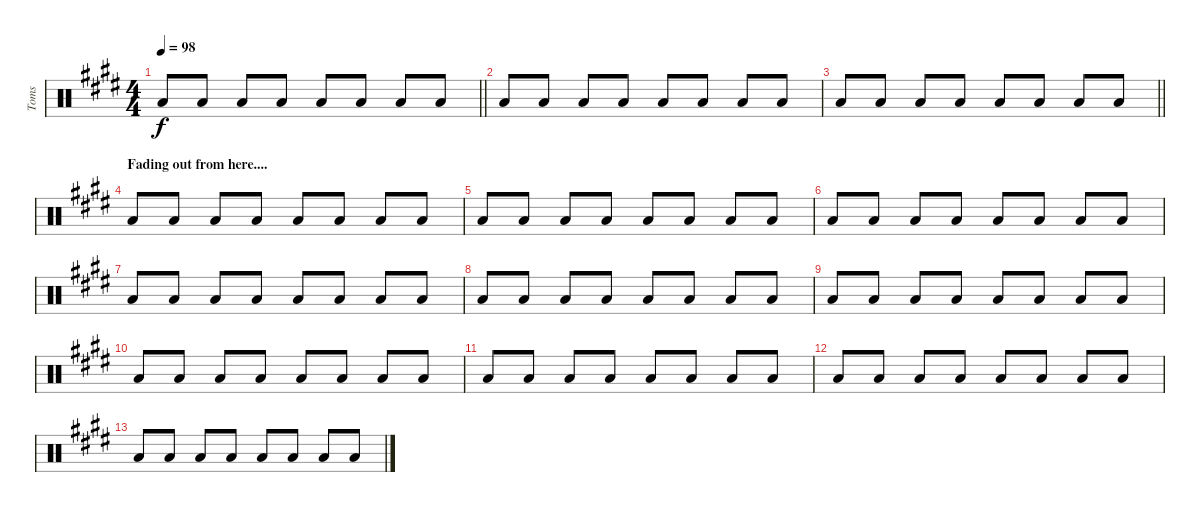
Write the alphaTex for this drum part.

\track ("Toms" "Toms") {instrument percussion}
\staff {score}
\articulation defaults
\ts (4 4)
\tempo 98
\clef neutral
\barLineRight lightlight
\ks c#minor "Low Tom (hit)".8{dy f} "Low Floor Tom (hit)".8 "Low Floor Tom (hit)".8 "Low Floor Tom (hit)".8 "Low Tom (hit)".8 "Low Floor Tom (hit)".8 "Low Floor Tom (hit)".8 "Low Floor Tom (hit)".8
|
"Low Tom (hit)".8 "Low Floor Tom (hit)".8 "Low Floor Tom (hit)".8 "Low Floor Tom (hit)".8 "Low Tom (hit)".8 "Low Floor Tom (hit)".8 "Low Floor Tom (hit)".8 "Low Floor Tom (hit)".8 |
\barLineRight lightlight "Low Tom (hit)".8 "Low Floor Tom (hit)".8 "Low Floor Tom (hit)".8 "Low Floor Tom (hit)".8 "Low Tom (hit)".8 "Low Floor Tom (hit)".8 "Low Floor Tom (hit)".8 "Low Floor Tom (hit)".8
|
\section ("" "Fading out from here....")
"Low Tom (hit)".8 "Low Floor Tom (hit)".8 "Low Floor Tom (hit)".8 "Low Floor Tom (hit)".8 "Low Tom (hit)".8 "Low Floor Tom (hit)".8 "Low Floor Tom (hit)".8 "Low Floor Tom (hit)".8 |
"Low Tom (hit)".8 "Low Floor Tom (hit)".8 "Low Floor Tom (hit)".8 "Low Floor Tom (hit)".8 "Low Tom (hit)".8 "Low Floor Tom (hit)".8 "Low Floor Tom (hit)".8 "Low Floor Tom (hit)".8 |
"Low Tom (hit)".8 "Low Floor Tom (hit)".8 "Low Floor Tom (hit)".8 "Low Floor Tom (hit)".8 "Low Tom (hit)".8 "Low Floor Tom (hit)".8 "Low Floor Tom (hit)".8 "Low Floor Tom (hit)".8 |
"Low Tom (hit)".8 "Low Floor Tom (hit)".8 "Low Floor Tom (hit)".8 "Low Floor Tom (hit)".8 "Low Tom (hit)".8 "Low Floor Tom (hit)".8 "Low Floor Tom (hit)".8 "Low Floor Tom (hit)".8 |
"Low Tom (hit)".8 "Low Floor Tom (hit)".8 "Low Floor Tom (hit)".8 "Low Floor Tom (hit)".8 "Low Tom (hit)".8 "Low Floor Tom (hit)".8 "Low Floor Tom (hit)".8 "Low Floor Tom (hit)".8 |
"Low Tom (hit)".8 "Low Floor Tom (hit)".8 "Low Floor Tom (hit)".8 "Low Floor Tom (hit)".8 "Low Tom (hit)".8 "Low Floor Tom (hit)".8 "Low Floor Tom (hit)".8 "Low Floor Tom (hit)".8 |
"Low Tom (hit)".8 "Low Floor Tom (hit)".8 "Low Floor Tom (hit)".8 "Low Floor Tom (hit)".8 "Low Tom (hit)".8 "Low Floor Tom (hit)".8 "Low Floor Tom (hit)".8 "Low Floor Tom (hit)".8 |
"Low Tom (hit)".8 "Low Floor Tom (hit)".8 "Low Floor Tom (hit)".8 "Low Floor Tom (hit)".8 "Low Tom (hit)".8 "Low Floor Tom (hit)".8 "Low Floor Tom (hit)".8 "Low Floor Tom (hit)".8 |
"Low Tom (hit)".8 "Low Floor Tom (hit)".8 "Low Floor Tom (hit)".8 "Low Floor Tom (hit)".8 "Low Tom (hit)".8 "Low Floor Tom (hit)".8 "Low Floor Tom (hit)".8 "Low Floor Tom (hit)".8 |
"Low Tom (hit)".8 "Low Floor Tom (hit)".8 "Low Floor Tom (hit)".8 "Low Floor Tom (hit)".8 "Low Tom (hit)".8 "Low Floor Tom (hit)".8 "Low Floor Tom (hit)".8 "Low Floor Tom (hit)".8
